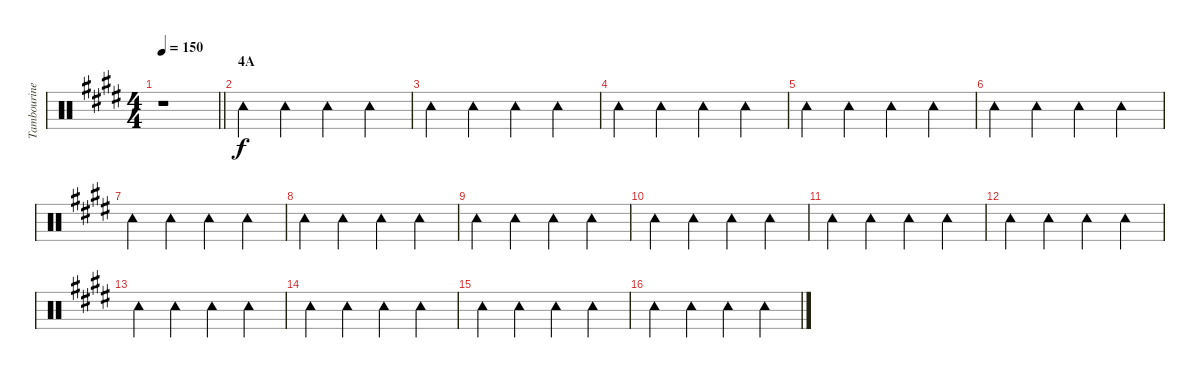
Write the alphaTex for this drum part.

\track ("Tambourine" "Tambourine") {instrument percussion}
\staff {score}
\articulation defaults
\ts (4 4)
\tempo 150
\clef neutral
\barLineRight lightlight
\ks e
r.1{dy p} |
\section ("" "4A")
"Tambourine (hit)".4{dy f} "Tambourine (hit)".4 "Tambourine (hit)".4 "Tambourine (hit)".4 |
"Tambourine (hit)".4 "Tambourine (hit)".4 "Tambourine (hit)".4 "Tambourine (hit)".4 |
"Tambourine (hit)".4 "Tambourine (hit)".4 "Tambourine (hit)".4 "Tambourine (hit)".4 |
"Tambourine (hit)".4 "Tambourine (hit)".4 "Tambourine (hit)".4 "Tambourine (hit)".4 |
"Tambourine (hit)".4 "Tambourine (hit)".4 "Tambourine (hit)".4 "Tambourine (hit)".4 |
"Tambourine (hit)".4 "Tambourine (hit)".4 "Tambourine (hit)".4 "Tambourine (hit)".4 |
"Tambourine (hit)".4 "Tambourine (hit)".4 "Tambourine (hit)".4 "Tambourine (hit)".4 |
"Tambourine (hit)".4 "Tambourine (hit)".4 "Tambourine (hit)".4 "Tambourine (hit)".4 |
"Tambourine (hit)".4 "Tambourine (hit)".4 "Tambourine (hit)".4 "Tambourine (hit)".4 |
"Tambourine (hit)".4 "Tambourine (hit)".4 "Tambourine (hit)".4 "Tambourine (hit)".4 |
"Tambourine (hit)".4 "Tambourine (hit)".4 "Tambourine (hit)".4 "Tambourine (hit)".4 |
"Tambourine (hit)".4 "Tambourine (hit)".4 "Tambourine (hit)".4 "Tambourine (hit)".4 |
"Tambourine (hit)".4 "Tambourine (hit)".4 "Tambourine (hit)".4 "Tambourine (hit)".4 |
"Tambourine (hit)".4 "Tambourine (hit)".4 "Tambourine (hit)".4 "Tambourine (hit)".4 |
"Tambourine (hit)".4 "Tambourine (hit)".4 "Tambourine (hit)".4 "Tambourine (hit)".4
